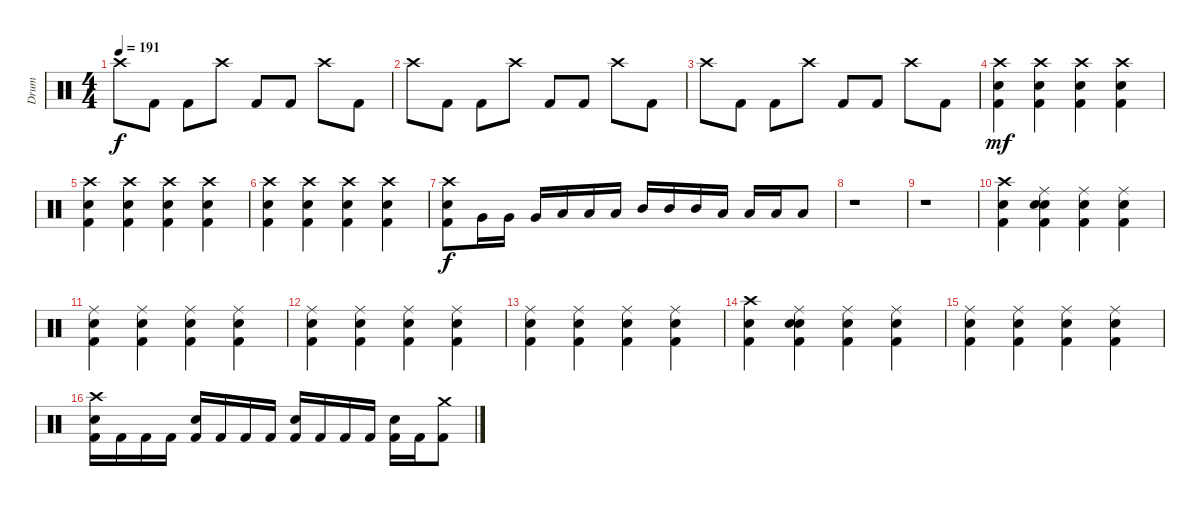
\track ("Drum" "Drum") {instrument percussion}
\staff {score}
\articulation defaults
\ts (4 4)
\tempo 191
\clef neutral
\ks c "Crash high (hit)".8{dy f} "Kick (hit) 2".8 "Kick (hit) 2".8 "Crash high (hit)".8 "Kick (hit) 2".8 "Kick (hit) 2".8 "Crash high (hit)".8 "Kick (hit) 2".8
|
"Crash high (hit)".8 "Kick (hit) 2".8 "Kick (hit) 2".8 "Crash high (hit)".8 "Kick (hit) 2".8 "Kick (hit) 2".8 "Crash high (hit)".8 "Kick (hit) 2".8 |
"Crash high (hit)".8 "Kick (hit) 2".8 "Kick (hit) 2".8 "Crash high (hit)".8 "Kick (hit) 2".8 "Kick (hit) 2".8 "Crash high (hit)".8 "Kick (hit) 2".8 |
("Kick (hit) 2" "Snare (hit) 2" "Crash high (hit)").4{dy mf} ("Kick (hit) 2" "Snare (hit) 2" "Crash high (hit)").4 ("Kick (hit) 2" "Snare (hit) 2" "Crash high (hit)").4 ("Kick (hit) 2" "Snare (hit) 2" "Crash high (hit)").4 |
("Kick (hit) 2" "Snare (hit) 2" "Crash high (hit)").4 ("Kick (hit) 2" "Snare (hit) 2" "Crash high (hit)").4 ("Kick (hit) 2" "Snare (hit) 2" "Crash high (hit)").4 ("Kick (hit) 2" "Snare (hit) 2" "Crash high (hit)").4 |
("Kick (hit) 2" "Snare (hit) 2" "Crash high (hit)").4 ("Kick (hit) 2" "Snare (hit) 2" "Crash high (hit)").4 ("Kick (hit) 2" "Snare (hit) 2" "Crash high (hit)").4 ("Kick (hit) 2" "Snare (hit) 2" "Crash high (hit)").4 |
("Kick (hit) 2" "Snare (hit) 2" "Crash high (hit)").8{dy f} "Very Low Tom (hit)".16 "Very Low Tom (hit)".16 "Very Low Tom (hit)".16 "Low Tom (hit)".16 "Low Tom (hit)".16 "Low Tom (hit)".16 "Mid Tom (hit)".16 "Mid Tom (hit)".16 "Mid Tom (hit)".16 "Low Floor Tom (hit)".16 "Low Floor Tom (hit)".16 "Low Floor Tom (hit)".16 "Low Floor Tom (hit)".8 |
r.1 |
r.1 |
("Kick (hit) 2" "Snare (hit) 2" "Crash high (hit)").4 ("Kick (hit) 2" "Snare (hit) 2" "Ride (middle)" "Snare (hit)").4 ("Kick (hit) 2" "Snare (hit) 2" "Ride (middle)").4 ("Kick (hit) 2" "Snare (hit) 2" "Ride (middle)").4 |
("Kick (hit) 2" "Snare (hit) 2" "Ride (middle)").4 ("Kick (hit) 2" "Snare (hit) 2" "Ride (middle)").4 ("Kick (hit) 2" "Snare (hit) 2" "Ride (middle)").4 ("Kick (hit) 2" "Snare (hit) 2" "Ride (middle)").4 |
("Kick (hit) 2" "Snare (hit) 2" "Ride (middle)").4 ("Kick (hit) 2" "Snare (hit) 2" "Ride (middle)").4 ("Kick (hit) 2" "Snare (hit) 2" "Ride (middle)").4 ("Kick (hit) 2" "Snare (hit) 2" "Ride (middle)").4 |
("Kick (hit) 2" "Snare (hit) 2" "Ride (middle)").4 ("Kick (hit) 2" "Snare (hit) 2" "Ride (middle)").4 ("Kick (hit) 2" "Snare (hit) 2" "Ride (middle)").4 ("Kick (hit) 2" "Snare (hit) 2" "Ride (middle)").4 |
("Kick (hit) 2" "Snare (hit) 2" "Crash high (hit)").4 ("Kick (hit) 2" "Snare (hit) 2" "Ride (middle)" "Snare (hit)").4 ("Kick (hit) 2" "Snare (hit) 2" "Ride (middle)").4 ("Kick (hit) 2" "Snare (hit) 2" "Ride (middle)").4 |
("Kick (hit) 2" "Snare (hit) 2" "Ride (middle)").4 ("Kick (hit) 2" "Snare (hit) 2" "Ride (middle)").4 ("Kick (hit) 2" "Snare (hit) 2" "Ride (middle)").4 ("Kick (hit) 2" "Snare (hit) 2" "Ride (middle)").4 |
("Kick (hit) 2" "Snare (hit) 2" "Crash high (hit)").16 "Kick (hit) 2".16 "Kick (hit) 2".16 "Kick (hit) 2".16 ("Kick (hit) 2" "Snare (hit) 2").16 "Kick (hit) 2".16 "Kick (hit) 2".16 "Kick (hit) 2".16 ("Kick (hit) 2" "Snare (hit) 2").16 "Kick (hit) 2".16 "Kick (hit) 2".16 "Kick (hit) 2".16 ("Kick (hit) 2" "Snare (hit) 2").16 "Kick (hit) 2".16 ("Kick (hit) 2" "Crash medium (hit)").8
